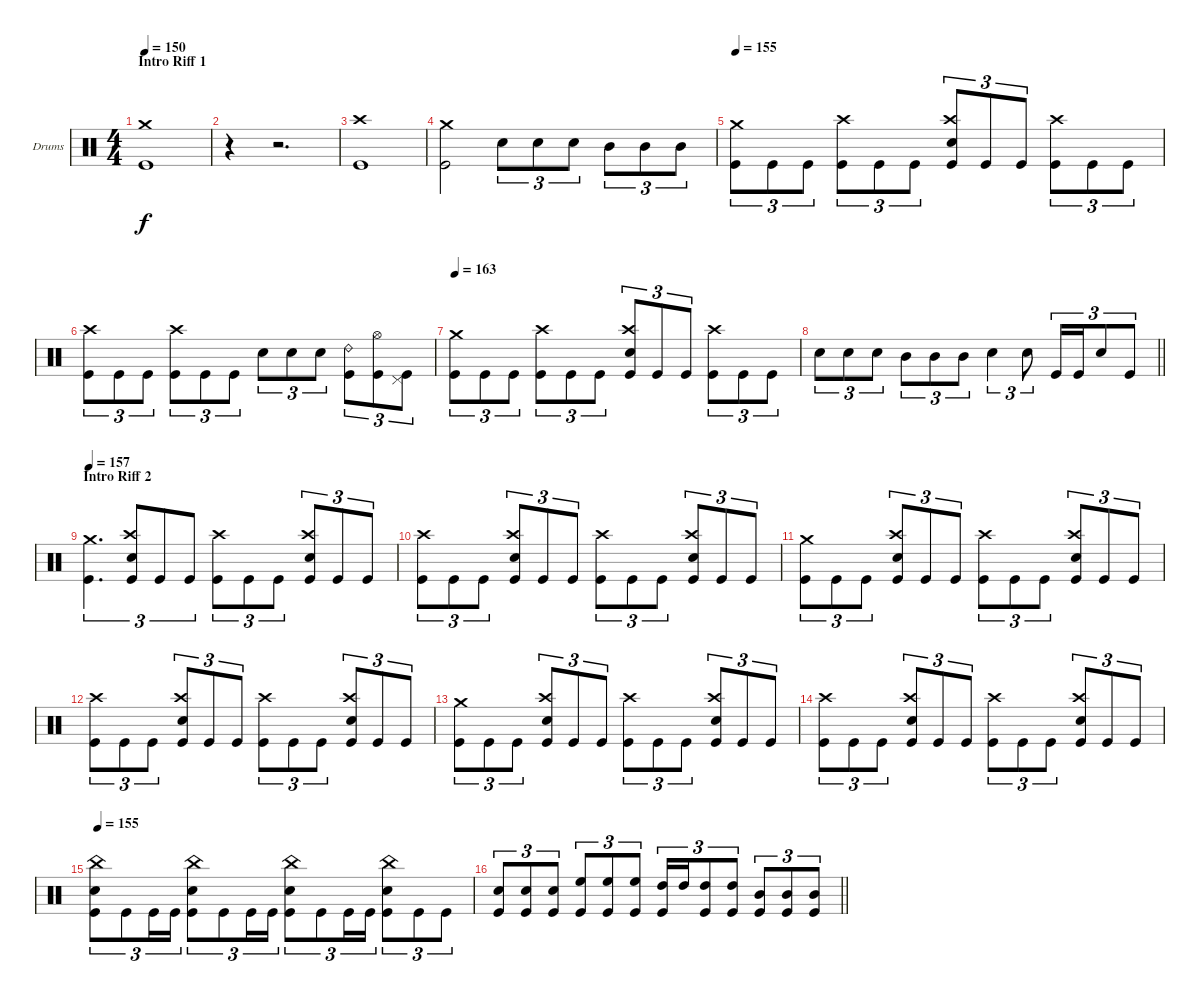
\bracketExtendMode groupsimilarinstruments
\firstSystemTrackNameOrientation horizontal
\otherSystemsTrackNameOrientation horizontal
\track ("Drumkit" "Drums") {instrument percussion}
\staff {score}
\articulation defaults
\ts (4 4)
\section ("" "Intro Riff 1")
\tempo 150
\clef neutral
\ks c
("Crash medium (hit)" "Kick (hit)").1{dy f} |
r.4 r.2{d} |
("Crash high (hit)" "Kick (hit)").1 |
("Crash medium (hit)" "Kick (hit)").2 "Snare (hit) 2".8{tu (3 2)} "Snare (hit) 2".8{tu (3 2)} "Snare (hit) 2".8{tu (3 2)} "Mid Tom (hit)".8{tu (3 2)} "Mid Tom (hit)".8{tu (3 2)} "Mid Tom (hit)".8{tu (3 2)} |
\tempo 155
("Crash medium (hit)" "Kick (hit)").8{tu (3 2)} "Kick (hit)".8{tu (3 2)} "Kick (hit)".8{tu (3 2)} ("Crash high (hit)" "Kick (hit)").8{tu (3 2)} "Kick (hit)".8{tu (3 2)} "Kick (hit)".8{tu (3 2)} ("Crash high (hit)" "Snare (hit) 2" "Kick (hit)").8{tu (3 2)} "Kick (hit)".8{tu (3 2)} "Kick (hit)".8{tu (3 2)} ("Crash high (hit)" "Kick (hit)").8{tu (3 2)} "Kick (hit)".8{tu (3 2)} "Kick (hit)".8{tu (3 2)} |
("Crash high (hit)" "Kick (hit)").8{tu (3 2)} "Kick (hit)".8{tu (3 2)} "Kick (hit)".8{tu (3 2)} ("Crash high (hit)" "Kick (hit)").8{tu (3 2)} "Kick (hit)".8{tu (3 2)} "Kick (hit)".8{tu (3 2)} "Snare (hit) 2".8{tu (3 2)} "Snare (hit) 2".8{tu (3 2)} "Snare (hit) 2".8{tu (3 2)} ("Ride (bell) 2" "Kick (hit)").8{tu (3 2)} ("Hi-Hat (open)" "Kick (hit)").8{tu (3 2)} ("Pedal Hi-Hat (hit)" "Kick (hit)").8{tu (3 2)} |
\tempo 163
("Crash medium (hit)" "Kick (hit)").8{tu (3 2)} "Kick (hit)".8{tu (3 2)} "Kick (hit)".8{tu (3 2)} ("Crash high (hit)" "Kick (hit)").8{tu (3 2)} "Kick (hit)".8{tu (3 2)} "Kick (hit)".8{tu (3 2)} ("Crash high (hit)" "Snare (hit) 2" "Kick (hit)").8{tu (3 2)} "Kick (hit)".8{tu (3 2)} "Kick (hit)".8{tu (3 2)} ("Crash high (hit)" "Kick (hit)").8{tu (3 2)} "Kick (hit)".8{tu (3 2)} "Kick (hit)".8{tu (3 2)} |
\barLineRight lightlight "Snare (hit) 2".8{tu (3 2)} "Snare (hit) 2".8{tu (3 2)} "Snare (hit) 2".8{tu (3 2)} "Mid Tom (hit)".8{tu (3 2)} "Mid Tom (hit)".8{tu (3 2)} "Mid Tom (hit)".8{tu (3 2)} "Snare (hit) 2".4{tu (3 2)} "Snare (hit) 2".8{tu (3 2)} "Kick (hit)".16{tu (3 2)} "Kick (hit)".16{tu (3 2)} "Snare (hit) 2".8{tu (3 2)} "Kick (hit)".8{tu (3 2)}
|
\section ("" "Intro Riff 2")
\tempo 157
("Crash medium (hit)" "Kick (hit)").4{d tu (3 2)} ("Crash high (hit)" "Snare (hit) 2" "Kick (hit)").8{tu (3 2)} "Kick (hit)".8{tu (3 2)} "Kick (hit)".8{tu (3 2)} ("Crash high (hit)" "Kick (hit)").8{tu (3 2)} "Kick (hit)".8{tu (3 2)} "Kick (hit)".8{tu (3 2)} ("Crash high (hit)" "Snare (hit) 2" "Kick (hit)").8{tu (3 2)} "Kick (hit)".8{tu (3 2)} "Kick (hit)".8{tu (3 2)} |
("Crash high (hit)" "Kick (hit)").8{tu (3 2)} "Kick (hit)".8{tu (3 2)} "Kick (hit)".8{tu (3 2)} ("Crash high (hit)" "Snare (hit) 2" "Kick (hit)").8{tu (3 2)} "Kick (hit)".8{tu (3 2)} "Kick (hit)".8{tu (3 2)} ("Crash high (hit)" "Kick (hit)").8{tu (3 2)} "Kick (hit)".8{tu (3 2)} "Kick (hit)".8{tu (3 2)} ("Crash high (hit)" "Snare (hit) 2" "Kick (hit)").8{tu (3 2)} "Kick (hit)".8{tu (3 2)} "Kick (hit)".8{tu (3 2)} |
("Crash medium (hit)" "Kick (hit)").8{tu (3 2)} "Kick (hit)".8{tu (3 2)} "Kick (hit)".8{tu (3 2)} ("Crash high (hit)" "Snare (hit) 2" "Kick (hit)").8{tu (3 2)} "Kick (hit)".8{tu (3 2)} "Kick (hit)".8{tu (3 2)} ("Crash high (hit)" "Kick (hit)").8{tu (3 2)} "Kick (hit)".8{tu (3 2)} "Kick (hit)".8{tu (3 2)} ("Crash high (hit)" "Snare (hit) 2" "Kick (hit)").8{tu (3 2)} "Kick (hit)".8{tu (3 2)} "Kick (hit)".8{tu (3 2)} |
("Crash high (hit)" "Kick (hit)").8{tu (3 2)} "Kick (hit)".8{tu (3 2)} "Kick (hit)".8{tu (3 2)} ("Crash high (hit)" "Snare (hit) 2" "Kick (hit)").8{tu (3 2)} "Kick (hit)".8{tu (3 2)} "Kick (hit)".8{tu (3 2)} ("Crash high (hit)" "Kick (hit)").8{tu (3 2)} "Kick (hit)".8{tu (3 2)} "Kick (hit)".8{tu (3 2)} ("Crash high (hit)" "Snare (hit) 2" "Kick (hit)").8{tu (3 2)} "Kick (hit)".8{tu (3 2)} "Kick (hit)".8{tu (3 2)} |
("Crash medium (hit)" "Kick (hit)").8{tu (3 2)} "Kick (hit)".8{tu (3 2)} "Kick (hit)".8{tu (3 2)} ("Crash high (hit)" "Snare (hit) 2" "Kick (hit)").8{tu (3 2)} "Kick (hit)".8{tu (3 2)} "Kick (hit)".8{tu (3 2)} ("Crash high (hit)" "Kick (hit)").8{tu (3 2)} "Kick (hit)".8{tu (3 2)} "Kick (hit)".8{tu (3 2)} ("Crash high (hit)" "Snare (hit) 2" "Kick (hit)").8{tu (3 2)} "Kick (hit)".8{tu (3 2)} "Kick (hit)".8{tu (3 2)} |
("Crash high (hit)" "Kick (hit)").8{tu (3 2)} "Kick (hit)".8{tu (3 2)} "Kick (hit)".8{tu (3 2)} ("Crash high (hit)" "Snare (hit) 2" "Kick (hit)").8{tu (3 2)} "Kick (hit)".8{tu (3 2)} "Kick (hit)".8{tu (3 2)} ("Crash high (hit)" "Kick (hit)").8{tu (3 2)} "Kick (hit)".8{tu (3 2)} "Kick (hit)".8{tu (3 2)} ("Crash high (hit)" "Snare (hit) 2" "Kick (hit)").8{tu (3 2)} "Kick (hit)".8{tu (3 2)} "Kick (hit)".8{tu (3 2)} |
\tempo 155
("China (hit)" "Snare (hit) 2" "Kick (hit)").8{tu (3 2)} "Kick (hit)".8{tu (3 2)} "Kick (hit)".16{tu (3 2)} "Kick (hit)".16{tu (3 2)} ("China (hit)" "Snare (hit) 2" "Kick (hit)").8{tu (3 2)} "Kick (hit)".8{tu (3 2)} "Kick (hit)".16{tu (3 2)} "Kick (hit)".16{tu (3 2)} ("China (hit)" "Snare (hit) 2" "Kick (hit)").8{tu (3 2)} "Kick (hit)".8{tu (3 2)} "Kick (hit)".16{tu (3 2)} "Kick (hit)".16{tu (3 2)} ("China (hit)" "Snare (hit) 2" "Kick (hit)").8{tu (3 2)} "Kick (hit)".8{tu (3 2)} "Kick (hit)".8{tu (3 2)} |
\barLineRight lightlight
("Snare (hit) 2" "Kick (hit)").8{tu (3 2)} ("Snare (hit) 2" "Kick (hit)").8{tu (3 2)} ("Snare (hit) 2" "Kick (hit)").8{tu (3 2)} ("High Floor Tom (hit)" "Kick (hit)").8{tu (3 2)} ("High Floor Tom (hit)" "Kick (hit)").8{tu (3 2)} ("High Floor Tom (hit)" "Kick (hit)").8{tu (3 2)} ("High Tom (hit)" "Kick (hit)").16{tu (3 2)} "High Tom (hit)".16{tu (3 2)} ("High Tom (hit)" "Kick (hit)").8{tu (3 2)} ("High Tom (hit)" "Kick (hit)").8{tu (3 2)} ("Mid Tom (hit)" "Kick (hit)").8{tu (3 2)} ("Mid Tom (hit)" "Kick (hit)").8{tu (3 2)} ("Mid Tom (hit)" "Kick (hit)").8{tu (3 2)}
